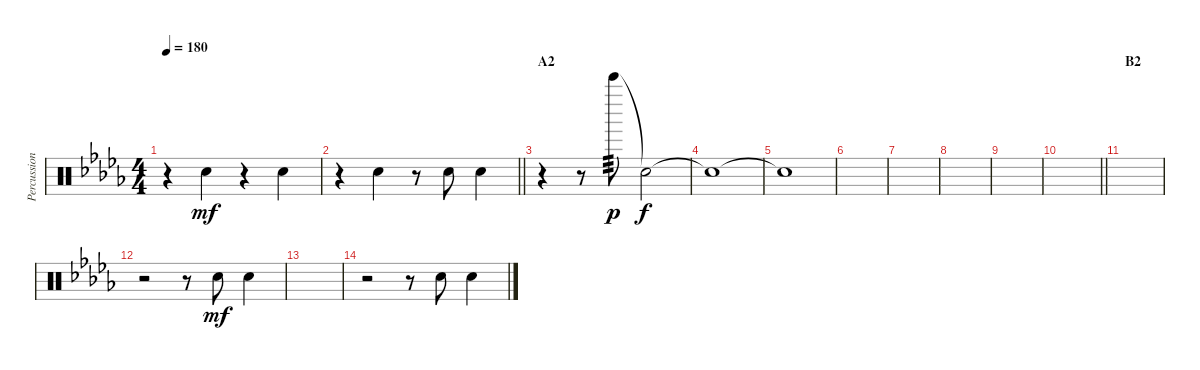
\track ("Percussion I (Tainaka Ritsu)" "Percussion") {instrument percussion}
\staff {score}
\articulation defaults
\ts (4 4)
\tempo 180
\clef neutral
\ks db
r.4{dy mf} "Hand Clap (hit)".4 r.4 "Hand Clap (hit)".4 |
\barLineRight lightlight
r.4 "Hand Clap (hit)".4 r.8 "Hand Clap (hit)".8 "Hand Clap (hit)".4 |
\section ("" "A2")
r.4 r.8 "Bell Tree (hit)".8{tp 3 dy p} "Snare (hit)"{t}.2{dy f} |
"Snare (hit)"{t}.1 |
"Snare (hit)"{t}.1 |
|
|
|
|
\barLineRight lightlight
|
\section ("" "B2")
|
r.2 r.8 "Hand Clap (hit)".8{dy mf} "Hand Clap (hit)".4 |
|
r.2 r.8 "Hand Clap (hit)".8 "Hand Clap (hit)".4
